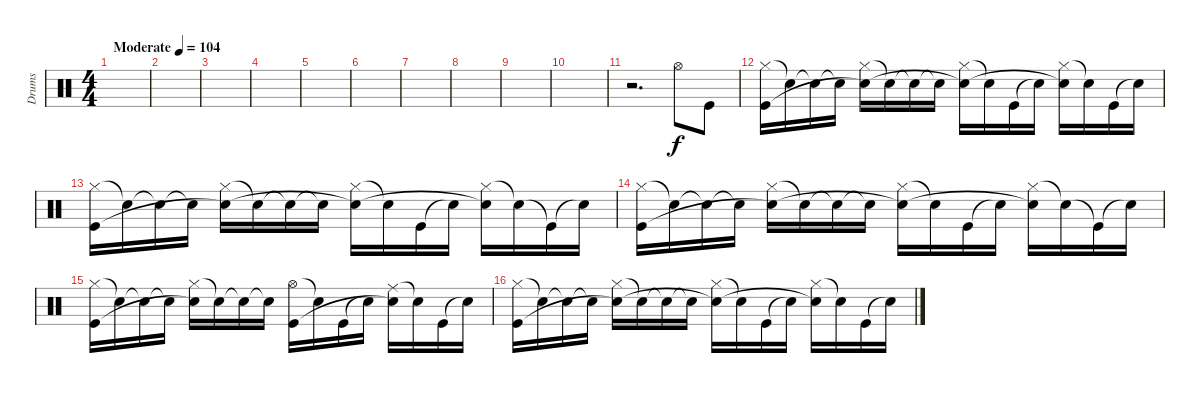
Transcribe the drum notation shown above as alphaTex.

\track ("Drums" "Drums") {instrument percussion}
\staff {score}
\articulation defaults
\ts (4 4)
\tempo (104 "Moderate")
\clef neutral
\ks c
|
|
|
|
|
|
|
|
|
|
r.2{d} "Hi-Hat (open)".8 "Kick (hit)".8 |
("Hi-Hat (closed)" "Kick (hit)").16 "Snare (hit)"{t}.16 "Snare (hit)"{t}.16 "Snare (hit)"{t}.16 ("Hi-Hat (closed)" "Snare (hit)"{t}).16 "Snare (hit)"{t}.16 "Snare (hit)"{t}.16 "Snare (hit)"{t}.16 ("Hi-Hat (closed)" "Snare (hit)"{t}).16 "Snare (hit)"{t}.16 "Kick (hit)".16 "Snare (hit)"{t}.16 ("Hi-Hat (closed)" "Snare (hit)"{t}).16 "Snare (hit)"{t}.16 "Kick (hit)".16 "Snare (hit)"{t}.16 |
("Hi-Hat (closed)" "Kick (hit)").16 "Snare (hit)"{t}.16 "Snare (hit)"{t}.16 "Snare (hit)"{t}.16 ("Hi-Hat (closed)" "Snare (hit)"{t}).16 "Snare (hit)"{t}.16 "Snare (hit)"{t}.16 "Snare (hit)"{t}.16 ("Hi-Hat (closed)" "Snare (hit)"{t}).16 "Snare (hit)"{t}.16 "Kick (hit)".16 "Snare (hit)"{t}.16 ("Hi-Hat (closed)" "Snare (hit)"{t}).16 "Snare (hit)"{t}.16 "Kick (hit)"{t}.16 "Snare (hit)"{t}.16 |
("Hi-Hat (closed)" "Kick (hit)").16 "Snare (hit)"{t}.16 "Snare (hit)"{t}.16 "Snare (hit)"{t}.16 ("Hi-Hat (closed)" "Snare (hit)"{t}).16 "Snare (hit)"{t}.16 "Snare (hit)"{t}.16 "Snare (hit)"{t}.16 ("Hi-Hat (closed)" "Snare (hit)"{t}).16 "Snare (hit)"{t}.16 "Kick (hit)".16 "Snare (hit)"{t}.16 ("Hi-Hat (closed)" "Snare (hit)"{t}).16 "Snare (hit)"{t}.16 "Kick (hit)"{t}.16 "Snare (hit)"{t}.16 |
("Hi-Hat (closed)" "Kick (hit)").16 "Snare (hit)"{t}.16 "Snare (hit)"{t}.16 "Snare (hit)"{t}.16 ("Hi-Hat (closed)" "Snare (hit)"{t}).16 "Snare (hit)"{t}.16 "Snare (hit)"{t}.16 "Snare (hit)"{t}.16 ("Hi-Hat (open)" "Kick (hit)").16 "Snare (hit)"{t}.16 "Kick (hit)".16 "Snare (hit)"{t}.16 ("Ride (middle)" "Snare (hit)"{t}).16 "Snare (hit)"{t}.16 "Kick (hit)".16 "Snare (hit)"{t}.16 |
("Hi-Hat (closed)" "Kick (hit)").16 "Snare (hit)"{t}.16 "Snare (hit)"{t}.16 "Snare (hit)"{t}.16 ("Hi-Hat (closed)" "Snare (hit)"{t}).16 "Snare (hit)"{t}.16 "Snare (hit)"{t}.16 "Snare (hit)"{t}.16 ("Hi-Hat (closed)" "Snare (hit)"{t}).16 "Snare (hit)"{t}.16 "Kick (hit)".16 "Snare (hit)"{t}.16 ("Hi-Hat (closed)" "Snare (hit)"{t}).16 "Snare (hit)"{t}.16 "Kick (hit)".16 "Snare (hit)"{t}.16
